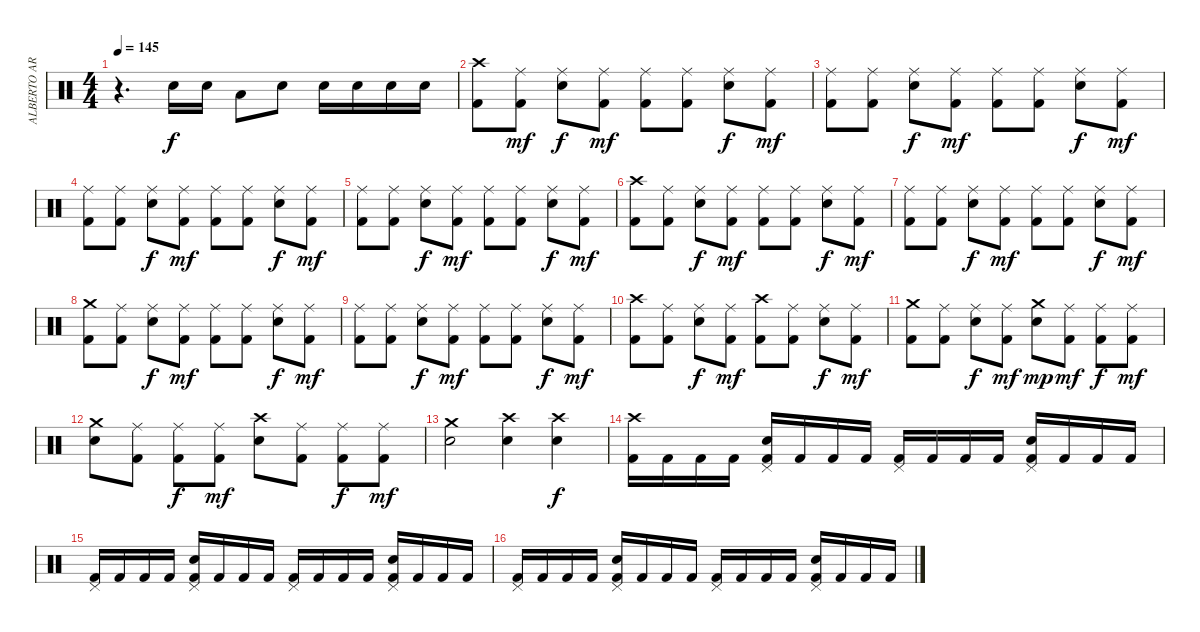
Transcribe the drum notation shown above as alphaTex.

\track ("ALBERTO ARDINES" "ALBERTO AR") {instrument percussion}
\staff {score}
\articulation defaults
\ts (4 4)
\tempo 145
\clef neutral
\ks c
r.4{d dy f} "Electric Snare (hit)".16 "Electric Snare (hit)".16 "Low Tom (hit)".8 "Electric Snare (hit)".8 "Electric Snare (hit)".16 "Electric Snare (hit)".16 "Electric Snare (hit)".16 "Electric Snare (hit)".16 |
("Crash high (hit)" "Kick (hit) 2").8 ("Ride (middle)" "Kick (hit) 2").8{dy mf} ("Ride (middle)" "Electric Snare (hit)").8{dy f} ("Ride (middle)" "Kick (hit) 2").8{dy mf} ("Ride (middle)" "Kick (hit) 2").8 ("Ride (middle)" "Kick (hit) 2").8 ("Ride (middle)" "Electric Snare (hit)").8{dy f} ("Ride (middle)" "Kick (hit) 2").8{dy mf} |
("Ride (middle)" "Kick (hit) 2").8 ("Ride (middle)" "Kick (hit) 2").8 ("Ride (middle)" "Electric Snare (hit)").8{dy f} ("Ride (middle)" "Kick (hit) 2").8{dy mf} ("Ride (middle)" "Kick (hit) 2").8 ("Ride (middle)" "Kick (hit) 2").8 ("Ride (middle)" "Electric Snare (hit)").8{dy f} ("Ride (middle)" "Kick (hit) 2").8{dy mf} |
("Ride (middle)" "Kick (hit) 2").8 ("Ride (middle)" "Kick (hit) 2").8 ("Ride (middle)" "Electric Snare (hit)").8{dy f} ("Ride (middle)" "Kick (hit) 2").8{dy mf} ("Ride (middle)" "Kick (hit) 2").8 ("Ride (middle)" "Kick (hit) 2").8 ("Ride (middle)" "Electric Snare (hit)").8{dy f} ("Ride (middle)" "Kick (hit) 2").8{dy mf} |
("Ride (middle)" "Kick (hit) 2").8 ("Ride (middle)" "Kick (hit) 2").8 ("Ride (middle)" "Electric Snare (hit)").8{dy f} ("Ride (middle)" "Kick (hit) 2").8{dy mf} ("Ride (middle)" "Kick (hit) 2").8 ("Ride (middle)" "Kick (hit) 2").8 ("Ride (middle)" "Electric Snare (hit)").8{dy f} ("Ride (middle)" "Kick (hit) 2").8{dy mf} |
("Crash high (hit)" "Kick (hit) 2").8 ("Ride (middle)" "Kick (hit) 2").8 ("Ride (middle)" "Electric Snare (hit)").8{dy f} ("Ride (middle)" "Kick (hit) 2").8{dy mf} ("Ride (middle)" "Kick (hit) 2").8 ("Ride (middle)" "Kick (hit) 2").8 ("Ride (middle)" "Electric Snare (hit)").8{dy f} ("Ride (middle)" "Kick (hit) 2").8{dy mf} |
("Ride (middle)" "Kick (hit) 2").8 ("Ride (middle)" "Kick (hit) 2").8 ("Ride (middle)" "Electric Snare (hit)").8{dy f} ("Ride (middle)" "Kick (hit) 2").8{dy mf} ("Ride (middle)" "Kick (hit) 2").8 ("Ride (middle)" "Kick (hit) 2").8 ("Ride (middle)" "Electric Snare (hit)").8{dy f} ("Ride (middle)" "Kick (hit) 2").8{dy mf} |
("Crash medium (hit)" "Kick (hit) 2").8 ("Ride (middle)" "Kick (hit) 2").8 ("Ride (middle)" "Electric Snare (hit)").8{dy f} ("Ride (middle)" "Kick (hit) 2").8{dy mf} ("Ride (middle)" "Kick (hit) 2").8 ("Ride (middle)" "Kick (hit) 2").8 ("Ride (middle)" "Electric Snare (hit)").8{dy f} ("Ride (middle)" "Kick (hit) 2").8{dy mf} |
("Ride (middle)" "Kick (hit) 2").8 ("Ride (middle)" "Kick (hit) 2").8 ("Ride (middle)" "Electric Snare (hit)").8{dy f} ("Ride (middle)" "Kick (hit) 2").8{dy mf} ("Ride (middle)" "Kick (hit) 2").8 ("Ride (middle)" "Kick (hit) 2").8 ("Ride (middle)" "Electric Snare (hit)").8{dy f} ("Ride (middle)" "Kick (hit) 2").8{dy mf} |
("Crash high (hit)" "Kick (hit) 2").8 ("Ride (middle)" "Kick (hit) 2").8 ("Ride (middle)" "Electric Snare (hit)").8{dy f} ("Ride (middle)" "Kick (hit) 2").8{dy mf} ("Crash high (hit)" "Kick (hit) 2").8 ("Ride (middle)" "Kick (hit) 2").8 ("Ride (middle)" "Electric Snare (hit)").8{dy f} ("Ride (middle)" "Kick (hit) 2").8{dy mf} |
("Crash medium (hit)" "Kick (hit) 2").8 ("Ride (middle)" "Kick (hit) 2").8 ("Ride (middle)" "Electric Snare (hit)").8{dy f} ("Ride (middle)" "Kick (hit) 2").8{dy mf} ("Crash medium (hit)" "Electric Snare (hit)").8{dy mp} ("Ride (middle)" "Kick (hit) 2").8{dy mf} ("Ride (middle)" "Kick (hit) 2").8{dy f} ("Ride (middle)" "Kick (hit) 2").8{dy mf} |
("Crash medium (hit)" "Electric Snare (hit)").8 ("Ride (middle)" "Kick (hit) 2").8 ("Ride (middle)" "Kick (hit) 2").8{dy f} ("Ride (middle)" "Kick (hit) 2").8{dy mf} ("Crash high (hit)" "Electric Snare (hit)").8 ("Ride (middle)" "Kick (hit) 2").8 ("Ride (middle)" "Kick (hit) 2").8{dy f} ("Ride (middle)" "Kick (hit) 2").8{dy mf} |
("Crash medium (hit)" "Electric Snare (hit)").2 ("Crash high (hit)" "Electric Snare (hit)").4 ("Crash high (hit)" "Electric Snare (hit)").4{dy f} |
("Crash high (hit)" "Kick (hit) 2").16 "Kick (hit) 2".16 "Kick (hit) 2".16 "Kick (hit) 2".16 ("Pedal Hi-Hat (hit)" "Electric Snare (hit)" "Kick (hit) 2").16 "Kick (hit) 2".16 "Kick (hit) 2".16 "Kick (hit) 2".16 ("Pedal Hi-Hat (hit)" "Kick (hit) 2").16 "Kick (hit) 2".16 "Kick (hit) 2".16 "Kick (hit) 2".16 ("Pedal Hi-Hat (hit)" "Electric Snare (hit)" "Kick (hit) 2").16 "Kick (hit) 2".16 "Kick (hit) 2".16 "Kick (hit) 2".16 |
("Pedal Hi-Hat (hit)" "Kick (hit) 2").16 "Kick (hit) 2".16 "Kick (hit) 2".16 "Kick (hit) 2".16 ("Pedal Hi-Hat (hit)" "Electric Snare (hit)" "Kick (hit) 2").16 "Kick (hit) 2".16 "Kick (hit) 2".16 "Kick (hit) 2".16 ("Pedal Hi-Hat (hit)" "Kick (hit) 2").16 "Kick (hit) 2".16 "Kick (hit) 2".16 "Kick (hit) 2".16 ("Pedal Hi-Hat (hit)" "Electric Snare (hit)" "Kick (hit) 2").16 "Kick (hit) 2".16 "Kick (hit) 2".16 "Kick (hit) 2".16 |
("Pedal Hi-Hat (hit)" "Kick (hit) 2").16 "Kick (hit) 2".16 "Kick (hit) 2".16 "Kick (hit) 2".16 ("Pedal Hi-Hat (hit)" "Electric Snare (hit)" "Kick (hit) 2").16 "Kick (hit) 2".16 "Kick (hit) 2".16 "Kick (hit) 2".16 ("Pedal Hi-Hat (hit)" "Kick (hit) 2").16 "Kick (hit) 2".16 "Kick (hit) 2".16 "Kick (hit) 2".16 ("Pedal Hi-Hat (hit)" "Electric Snare (hit)" "Kick (hit) 2").16 "Kick (hit) 2".16 "Kick (hit) 2".16 "Kick (hit) 2".16
